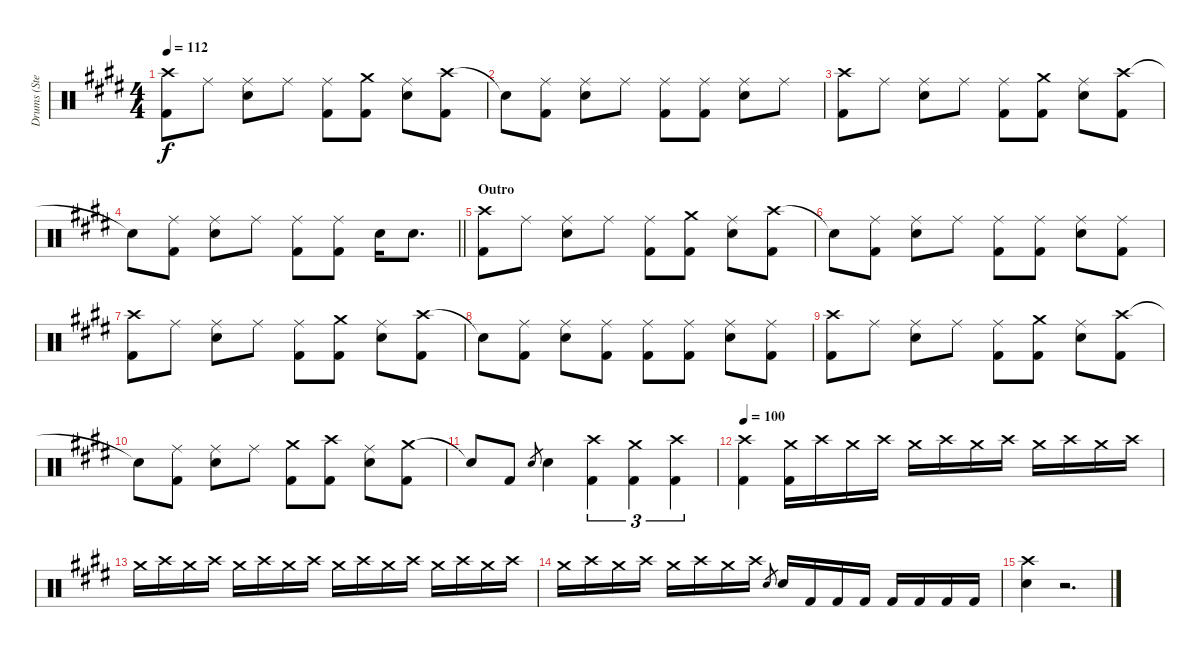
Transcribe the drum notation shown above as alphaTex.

\track ("Drums (Steven)" "Drums (Ste") {instrument percussion}
\staff {score}
\articulation defaults
\ts (4 4)
\tempo 112
\clef neutral
\ks e
("Crash high (hit)" "Kick (hit) 2").8{dy f} "Ride (middle)".8 ("Ride (middle)" "Snare (hit) 2").8 "Ride (middle)".8 ("Ride (middle)" "Kick (hit) 2").8 ("Crash medium (hit)" "Kick (hit) 2").8 ("Ride (middle)" "Snare (hit) 2").8 ("Crash high (hit)" "Kick (hit) 2").8 |
"Snare (hit)"{t}.8 ("Ride (middle)" "Kick (hit) 2").8 ("Ride (middle)" "Snare (hit) 2").8 "Ride (middle)".8 ("Ride (middle)" "Kick (hit) 2").8 ("Ride (middle)" "Kick (hit) 2").8 ("Ride (middle)" "Snare (hit) 2").8 "Ride (middle)".8 |
("Crash high (hit)" "Kick (hit) 2").8 "Ride (middle)".8 ("Ride (middle)" "Snare (hit) 2").8 "Ride (middle)".8 ("Ride (middle)" "Kick (hit) 2").8 ("Crash medium (hit)" "Kick (hit) 2").8 ("Ride (middle)" "Snare (hit) 2").8 ("Crash high (hit)" "Kick (hit) 2").8 |
\barLineRight lightlight "Snare (hit)"{t}.8
("Ride (middle)" "Kick (hit) 2").8 ("Ride (middle)" "Snare (hit) 2").8 "Ride (middle)".8 ("Ride (middle)" "Kick (hit) 2").8 ("Ride (middle)" "Kick (hit) 2").8 "Snare (hit) 2".16 "Snare (hit) 2".8{d} |
\section ("" "Outro")
("Crash high (hit)" "Kick (hit) 2").8 "Ride (middle)".8 ("Ride (middle)" "Snare (hit) 2").8 "Ride (middle)".8 ("Ride (middle)" "Kick (hit) 2").8 ("Crash medium (hit)" "Kick (hit) 2").8 ("Ride (middle)" "Snare (hit) 2").8 ("Crash high (hit)" "Kick (hit) 2").8 |
"Snare (hit)"{t}.8 ("Ride (middle)" "Kick (hit) 2").8 ("Ride (middle)" "Snare (hit) 2").8 "Ride (middle)".8 ("Ride (middle)" "Kick (hit) 2").8 ("Ride (middle)" "Kick (hit) 2").8 ("Ride (middle)" "Snare (hit) 2").8 ("Ride (middle)" "Kick (hit) 2").8 |
("Crash high (hit)" "Kick (hit) 2").8 "Ride (middle)".8 ("Ride (middle)" "Snare (hit) 2").8 "Ride (middle)".8 ("Ride (middle)" "Kick (hit) 2").8 ("Crash medium (hit)" "Kick (hit) 2").8 ("Ride (middle)" "Snare (hit) 2").8 ("Crash high (hit)" "Kick (hit) 2").8 |
"Snare (hit)"{t}.8 ("Ride (middle)" "Kick (hit) 2").8 ("Ride (middle)" "Snare (hit) 2").8 ("Ride (middle)" "Kick (hit) 2").8 ("Ride (middle)" "Kick (hit) 2").8 ("Ride (middle)" "Kick (hit) 2").8 ("Ride (middle)" "Snare (hit) 2").8 ("Ride (middle)" "Kick (hit) 2").8 |
("Crash high (hit)" "Kick (hit) 2").8 "Ride (middle)".8 ("Ride (middle)" "Snare (hit) 2").8 "Ride (middle)".8 ("Ride (middle)" "Kick (hit) 2").8 ("Crash medium (hit)" "Kick (hit) 2").8 ("Ride (middle)" "Snare (hit) 2").8 ("Crash high (hit)" "Kick (hit) 2").8 |
"Snare (hit)"{t}.8 ("Ride (middle)" "Kick (hit) 2").8 ("Ride (middle)" "Snare (hit) 2").8 "Ride (middle)".8 ("Crash medium (hit)" "Kick (hit) 2").8 ("Crash high (hit)" "Kick (hit) 2").8 ("Ride (middle)" "Snare (hit) 2").8 ("Crash medium (hit)" "Kick (hit) 2").8 |
"Snare (hit)"{t}.8 "Kick (hit) 2".8 "Snare (hit) 2".8{gr} "Snare (hit) 2".4 ("Crash high (hit)" "Kick (hit) 2").4{tu (3 2)} ("Crash medium (hit)" "Kick (hit) 2").4{tu (3 2)} ("Crash high (hit)" "Kick (hit) 2").4{tu (3 2)} |
\tempo 100
("Crash high (hit)" "Kick (hit) 2").4 ("Crash medium (hit)" "Kick (hit) 2").16 "Crash high (hit)".16 "Crash medium (hit)".16 "Crash high (hit)".16 "Crash medium (hit)".16 "Crash high (hit)".16 "Crash medium (hit)".16 "Crash high (hit)".16 "Crash medium (hit)".16 "Crash high (hit)".16 "Crash medium (hit)".16 "Crash high (hit)".16 |
"Crash medium (hit)".16 "Crash high (hit)".16 "Crash medium (hit)".16 "Crash high (hit)".16 "Crash medium (hit)".16 "Crash high (hit)".16 "Crash medium (hit)".16 "Crash high (hit)".16 "Crash medium (hit)".16 "Crash high (hit)".16 "Crash medium (hit)".16 "Crash high (hit)".16 "Crash medium (hit)".16 "Crash high (hit)".16 "Crash medium (hit)".16 "Crash high (hit)".16 |
"Crash medium (hit)".16 "Crash high (hit)".16 "Crash medium (hit)".16 "Crash high (hit)".16 "Crash medium (hit)".16 "Crash high (hit)".16 "Crash medium (hit)".16 "Crash high (hit)".16 "Snare (hit) 2".8{gr} "Snare (hit) 2".16 "Kick (hit) 2".16 "Kick (hit) 2".16 "Kick (hit) 2".16 "Kick (hit) 2".16 "Kick (hit) 2".16 "Kick (hit) 2".16 "Kick (hit) 2".16 |
("Crash high (hit)" "Snare (hit) 2").4 r.2{d}
